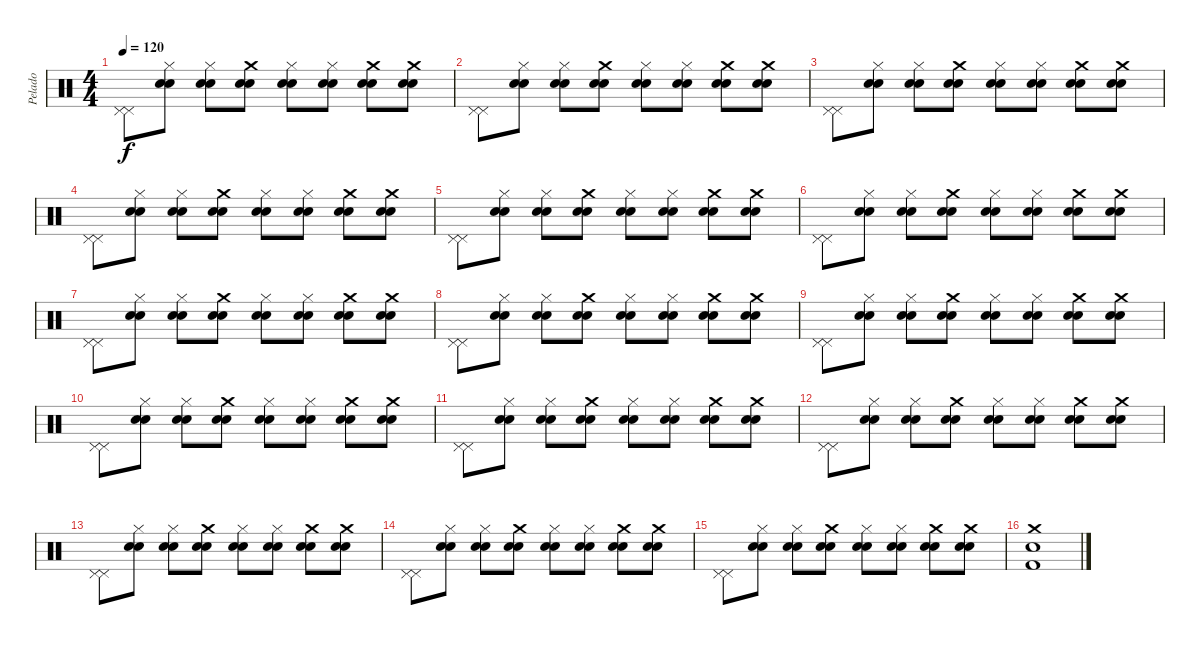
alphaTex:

\track ("Pelado" "Pelado") {instrument percussion}
\staff {score}
\articulation defaults
\ts (4 4)
\tempo 120
\clef neutral
\ks c
("Pedal Hi-Hat (hit)" "Pedal Hi-Hat (hit)").8{dy f} ("Hi-Hat (closed)" "Electric Snare (hit)" "Electric Snare (hit)").8 ("Hi-Hat (closed)" "Electric Snare (hit)" "Electric Snare (hit)").8 ("Crash medium (hit)" "Electric Snare (hit)" "Electric Snare (hit)").8 ("Hi-Hat (closed)" "Electric Snare (hit)" "Electric Snare (hit)").8 ("Hi-Hat (closed)" "Electric Snare (hit)" "Electric Snare (hit)").8 ("Crash medium (hit)" "Electric Snare (hit)" "Electric Snare (hit)").8 ("Crash medium (hit)" "Electric Snare (hit)" "Electric Snare (hit)").8 |
("Pedal Hi-Hat (hit)" "Pedal Hi-Hat (hit)").8 ("Hi-Hat (closed)" "Electric Snare (hit)" "Electric Snare (hit)").8 ("Hi-Hat (closed)" "Electric Snare (hit)" "Electric Snare (hit)").8 ("Crash medium (hit)" "Electric Snare (hit)" "Electric Snare (hit)").8 ("Hi-Hat (closed)" "Electric Snare (hit)" "Electric Snare (hit)").8 ("Hi-Hat (closed)" "Electric Snare (hit)" "Electric Snare (hit)").8 ("Crash medium (hit)" "Electric Snare (hit)" "Electric Snare (hit)").8 ("Crash medium (hit)" "Electric Snare (hit)" "Electric Snare (hit)").8 |
("Pedal Hi-Hat (hit)" "Pedal Hi-Hat (hit)").8 ("Hi-Hat (closed)" "Electric Snare (hit)" "Electric Snare (hit)").8 ("Hi-Hat (closed)" "Electric Snare (hit)" "Electric Snare (hit)").8 ("Crash medium (hit)" "Electric Snare (hit)" "Electric Snare (hit)").8 ("Hi-Hat (closed)" "Electric Snare (hit)" "Electric Snare (hit)").8 ("Hi-Hat (closed)" "Electric Snare (hit)" "Electric Snare (hit)").8 ("Crash medium (hit)" "Electric Snare (hit)" "Electric Snare (hit)").8 ("Crash medium (hit)" "Electric Snare (hit)" "Electric Snare (hit)").8 |
("Pedal Hi-Hat (hit)" "Pedal Hi-Hat (hit)").8 ("Hi-Hat (closed)" "Electric Snare (hit)" "Electric Snare (hit)").8 ("Hi-Hat (closed)" "Electric Snare (hit)" "Electric Snare (hit)").8 ("Crash medium (hit)" "Electric Snare (hit)" "Electric Snare (hit)").8 ("Hi-Hat (closed)" "Electric Snare (hit)" "Electric Snare (hit)").8 ("Hi-Hat (closed)" "Electric Snare (hit)" "Electric Snare (hit)").8 ("Crash medium (hit)" "Electric Snare (hit)" "Electric Snare (hit)").8 ("Crash medium (hit)" "Electric Snare (hit)" "Electric Snare (hit)").8 |
("Pedal Hi-Hat (hit)" "Pedal Hi-Hat (hit)").8 ("Hi-Hat (closed)" "Electric Snare (hit)" "Electric Snare (hit)").8 ("Hi-Hat (closed)" "Electric Snare (hit)" "Electric Snare (hit)").8 ("Crash medium (hit)" "Electric Snare (hit)" "Electric Snare (hit)").8 ("Hi-Hat (closed)" "Electric Snare (hit)" "Electric Snare (hit)").8 ("Hi-Hat (closed)" "Electric Snare (hit)" "Electric Snare (hit)").8 ("Crash medium (hit)" "Electric Snare (hit)" "Electric Snare (hit)").8 ("Crash medium (hit)" "Electric Snare (hit)" "Electric Snare (hit)").8 |
("Pedal Hi-Hat (hit)" "Pedal Hi-Hat (hit)").8 ("Hi-Hat (closed)" "Electric Snare (hit)" "Electric Snare (hit)").8 ("Hi-Hat (closed)" "Electric Snare (hit)" "Electric Snare (hit)").8 ("Crash medium (hit)" "Electric Snare (hit)" "Electric Snare (hit)").8 ("Hi-Hat (closed)" "Electric Snare (hit)" "Electric Snare (hit)").8 ("Hi-Hat (closed)" "Electric Snare (hit)" "Electric Snare (hit)").8 ("Crash medium (hit)" "Electric Snare (hit)" "Electric Snare (hit)").8 ("Crash medium (hit)" "Electric Snare (hit)" "Electric Snare (hit)").8 |
("Pedal Hi-Hat (hit)" "Pedal Hi-Hat (hit)").8 ("Hi-Hat (closed)" "Electric Snare (hit)" "Electric Snare (hit)").8 ("Hi-Hat (closed)" "Electric Snare (hit)" "Electric Snare (hit)").8 ("Crash medium (hit)" "Electric Snare (hit)" "Electric Snare (hit)").8 ("Hi-Hat (closed)" "Electric Snare (hit)" "Electric Snare (hit)").8 ("Hi-Hat (closed)" "Electric Snare (hit)" "Electric Snare (hit)").8 ("Crash medium (hit)" "Electric Snare (hit)" "Electric Snare (hit)").8 ("Crash medium (hit)" "Electric Snare (hit)" "Electric Snare (hit)").8 |
("Pedal Hi-Hat (hit)" "Pedal Hi-Hat (hit)").8 ("Hi-Hat (closed)" "Electric Snare (hit)" "Electric Snare (hit)").8 ("Hi-Hat (closed)" "Electric Snare (hit)" "Electric Snare (hit)").8 ("Crash medium (hit)" "Electric Snare (hit)" "Electric Snare (hit)").8 ("Hi-Hat (closed)" "Electric Snare (hit)" "Electric Snare (hit)").8 ("Hi-Hat (closed)" "Electric Snare (hit)" "Electric Snare (hit)").8 ("Crash medium (hit)" "Electric Snare (hit)" "Electric Snare (hit)").8 ("Crash medium (hit)" "Electric Snare (hit)" "Electric Snare (hit)").8 |
("Pedal Hi-Hat (hit)" "Pedal Hi-Hat (hit)").8 ("Hi-Hat (closed)" "Electric Snare (hit)" "Electric Snare (hit)").8 ("Hi-Hat (closed)" "Electric Snare (hit)" "Electric Snare (hit)").8 ("Crash medium (hit)" "Electric Snare (hit)" "Electric Snare (hit)").8 ("Hi-Hat (closed)" "Electric Snare (hit)" "Electric Snare (hit)").8 ("Hi-Hat (closed)" "Electric Snare (hit)" "Electric Snare (hit)").8 ("Crash medium (hit)" "Electric Snare (hit)" "Electric Snare (hit)").8 ("Crash medium (hit)" "Electric Snare (hit)" "Electric Snare (hit)").8 |
("Pedal Hi-Hat (hit)" "Pedal Hi-Hat (hit)").8 ("Hi-Hat (closed)" "Electric Snare (hit)" "Electric Snare (hit)").8 ("Hi-Hat (closed)" "Electric Snare (hit)" "Electric Snare (hit)").8 ("Crash medium (hit)" "Electric Snare (hit)" "Electric Snare (hit)").8 ("Hi-Hat (closed)" "Electric Snare (hit)" "Electric Snare (hit)").8 ("Hi-Hat (closed)" "Electric Snare (hit)" "Electric Snare (hit)").8 ("Crash medium (hit)" "Electric Snare (hit)" "Electric Snare (hit)").8 ("Crash medium (hit)" "Electric Snare (hit)" "Electric Snare (hit)").8 |
("Pedal Hi-Hat (hit)" "Pedal Hi-Hat (hit)").8 ("Hi-Hat (closed)" "Electric Snare (hit)" "Electric Snare (hit)").8 ("Hi-Hat (closed)" "Electric Snare (hit)" "Electric Snare (hit)").8 ("Crash medium (hit)" "Electric Snare (hit)" "Electric Snare (hit)").8 ("Hi-Hat (closed)" "Electric Snare (hit)" "Electric Snare (hit)").8 ("Hi-Hat (closed)" "Electric Snare (hit)" "Electric Snare (hit)").8 ("Crash medium (hit)" "Electric Snare (hit)" "Electric Snare (hit)").8 ("Crash medium (hit)" "Electric Snare (hit)" "Electric Snare (hit)").8 |
("Pedal Hi-Hat (hit)" "Pedal Hi-Hat (hit)").8 ("Hi-Hat (closed)" "Electric Snare (hit)" "Electric Snare (hit)").8 ("Hi-Hat (closed)" "Electric Snare (hit)" "Electric Snare (hit)").8 ("Crash medium (hit)" "Electric Snare (hit)" "Electric Snare (hit)").8 ("Hi-Hat (closed)" "Electric Snare (hit)" "Electric Snare (hit)").8 ("Hi-Hat (closed)" "Electric Snare (hit)" "Electric Snare (hit)").8 ("Crash medium (hit)" "Electric Snare (hit)" "Electric Snare (hit)").8 ("Crash medium (hit)" "Electric Snare (hit)" "Electric Snare (hit)").8 |
("Pedal Hi-Hat (hit)" "Pedal Hi-Hat (hit)").8 ("Hi-Hat (closed)" "Electric Snare (hit)" "Electric Snare (hit)").8 ("Hi-Hat (closed)" "Electric Snare (hit)" "Electric Snare (hit)").8 ("Crash medium (hit)" "Electric Snare (hit)" "Electric Snare (hit)").8 ("Hi-Hat (closed)" "Electric Snare (hit)" "Electric Snare (hit)").8 ("Hi-Hat (closed)" "Electric Snare (hit)" "Electric Snare (hit)").8 ("Crash medium (hit)" "Electric Snare (hit)" "Electric Snare (hit)").8 ("Crash medium (hit)" "Electric Snare (hit)" "Electric Snare (hit)").8 |
("Pedal Hi-Hat (hit)" "Pedal Hi-Hat (hit)").8 ("Hi-Hat (closed)" "Electric Snare (hit)" "Electric Snare (hit)").8 ("Hi-Hat (closed)" "Electric Snare (hit)" "Electric Snare (hit)").8 ("Crash medium (hit)" "Electric Snare (hit)" "Electric Snare (hit)").8 ("Hi-Hat (closed)" "Electric Snare (hit)" "Electric Snare (hit)").8 ("Hi-Hat (closed)" "Electric Snare (hit)" "Electric Snare (hit)").8 ("Crash medium (hit)" "Electric Snare (hit)" "Electric Snare (hit)").8 ("Crash medium (hit)" "Electric Snare (hit)" "Electric Snare (hit)").8 |
("Pedal Hi-Hat (hit)" "Pedal Hi-Hat (hit)").8 ("Hi-Hat (closed)" "Electric Snare (hit)" "Electric Snare (hit)").8 ("Hi-Hat (closed)" "Electric Snare (hit)" "Electric Snare (hit)").8 ("Crash medium (hit)" "Electric Snare (hit)" "Electric Snare (hit)").8 ("Hi-Hat (closed)" "Electric Snare (hit)" "Electric Snare (hit)").8 ("Hi-Hat (closed)" "Electric Snare (hit)" "Electric Snare (hit)").8 ("Crash medium (hit)" "Electric Snare (hit)" "Electric Snare (hit)").8 ("Crash medium (hit)" "Electric Snare (hit)" "Electric Snare (hit)").8 |
("Crash medium (hit)" "Electric Snare (hit)" "Kick (hit) 2").1
